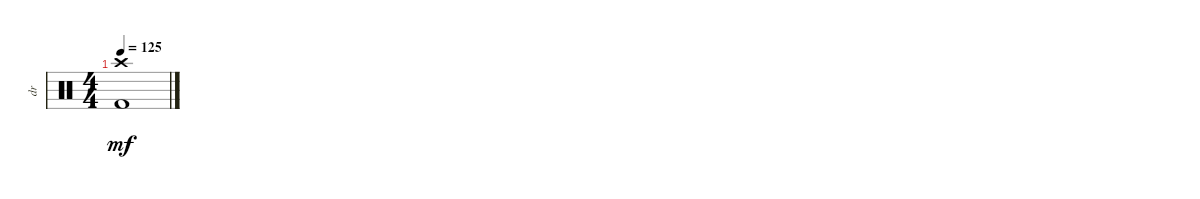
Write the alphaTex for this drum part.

\track ("dr" "dr") {instrument percussion}
\staff {score}
\articulation defaults
\ts (4 4)
\tempo 125
\clef neutral
\ks c
("Crash high (hit)" "Kick (hit) 2").1{dy mf}
